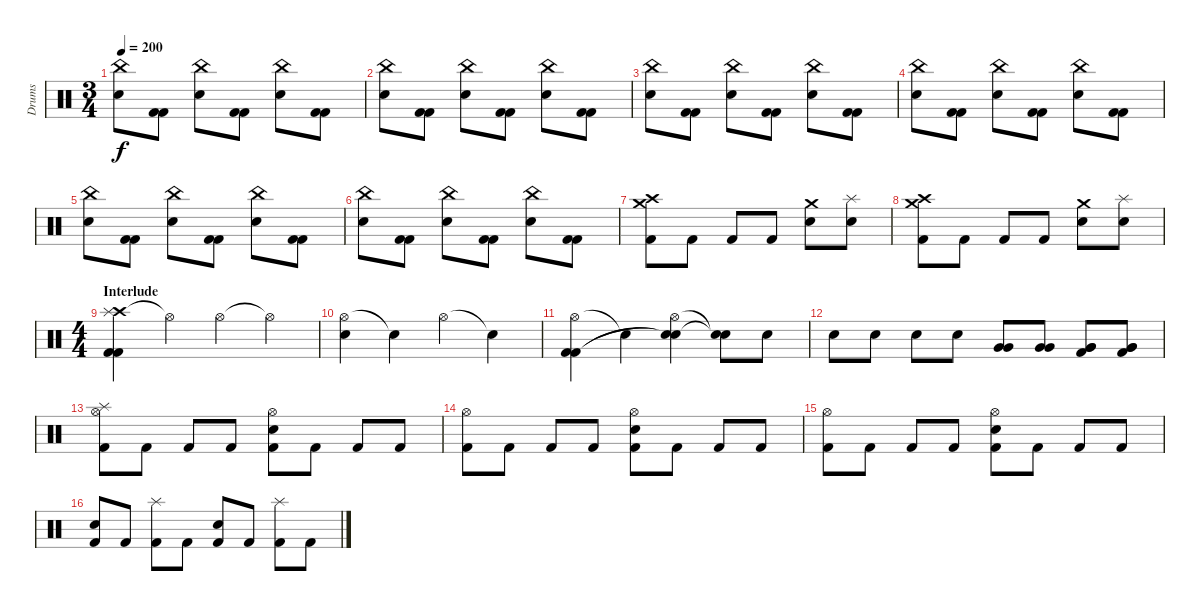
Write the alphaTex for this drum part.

\track ("Drums" "Drums") {instrument percussion}
\staff {score}
\articulation defaults
\ts (3 4)
\tempo 200
\clef neutral
\ks c
("China (hit)" "Snare (hit) 2").8{dy f} ("Kick (hit) 2" "Kick (hit) 2").8 ("China (hit)" "Snare (hit) 2").8 ("Kick (hit) 2" "Kick (hit) 2").8 ("China (hit)" "Snare (hit) 2").8 ("Kick (hit) 2" "Kick (hit) 2").8 |
("China (hit)" "Snare (hit) 2").8 ("Kick (hit) 2" "Kick (hit) 2").8 ("China (hit)" "Snare (hit) 2").8 ("Kick (hit) 2" "Kick (hit) 2").8 ("China (hit)" "Snare (hit) 2").8 ("Kick (hit) 2" "Kick (hit) 2").8 |
("China (hit)" "Snare (hit) 2").8 ("Kick (hit) 2" "Kick (hit) 2").8 ("China (hit)" "Snare (hit) 2").8 ("Kick (hit) 2" "Kick (hit) 2").8 ("China (hit)" "Snare (hit) 2").8 ("Kick (hit) 2" "Kick (hit) 2").8 |
("China (hit)" "Snare (hit) 2").8 ("Kick (hit) 2" "Kick (hit) 2").8 ("China (hit)" "Snare (hit) 2").8 ("Kick (hit) 2" "Kick (hit) 2").8 ("China (hit)" "Snare (hit) 2").8 ("Kick (hit) 2" "Kick (hit) 2").8 |
("China (hit)" "Snare (hit) 2").8 ("Kick (hit) 2" "Kick (hit) 2").8 ("China (hit)" "Snare (hit) 2").8 ("Kick (hit) 2" "Kick (hit) 2").8 ("China (hit)" "Snare (hit) 2").8 ("Kick (hit) 2" "Kick (hit) 2").8 |
("China (hit)" "Snare (hit) 2").8 ("Kick (hit) 2" "Kick (hit) 2").8 ("China (hit)" "Snare (hit) 2").8 ("Kick (hit) 2" "Kick (hit) 2").8 ("China (hit)" "Snare (hit) 2").8 ("Kick (hit) 2" "Kick (hit) 2").8 |
("Crash medium (hit)" "Crash high (hit)" "Kick (hit) 2").8 "Kick (hit) 2".8 "Kick (hit) 2".8 "Kick (hit) 2".8 ("Crash medium (hit)" "Snare (hit) 2").8 ("Splash (hit)" "Snare (hit) 2").8 |
("Crash medium (hit)" "Crash high (hit)" "Kick (hit) 2").8 "Kick (hit) 2".8 "Kick (hit) 2".8 "Kick (hit) 2".8 ("Crash medium (hit)" "Snare (hit) 2").8 ("Splash (hit)" "Snare (hit) 2").8 |
\ts (4 4)
\section ("" "Interlude")
("Crash high (hit)" "Splash (hit)" "Kick (hit) 2" "Kick (hit) 2").4 "Hi-Hat (open)"{t}.4 "Hi-Hat (open)".4 "Hi-Hat (open)"{t}.4 |
("Hi-Hat (open)" "Snare (hit) 2").4 "Snare (hit)"{t}.4 "Hi-Hat (open)".4 "Snare (hit)"{t}.4 |
("Hi-Hat (open)" "Kick (hit) 2" "Kick (hit) 2").4 "Snare (hit)"{t}.4 ("Hi-Hat (open)" "Snare (hit)"{t} "Snare (hit)"{t}).4 ("Snare (hit)"{t} "Snare (hit)"{t}).8 "Snare (hit) 2".8 |
"Snare (hit) 2".8 "Snare (hit) 2".8 "Snare (hit) 2".8 "Snare (hit) 2".8 ("Very Low Tom (hit)" "Very Low Tom (hit)").8 ("Very Low Tom (hit)" "Very Low Tom (hit)").8 ("Very Low Tom (hit)" "Very Low Tom (hit)" "Kick (hit) 2").8 ("Very Low Tom (hit)" "Very Low Tom (hit)" "Kick (hit) 2").8 |
("Hi-Hat (open)" "Splash (hit)" "Kick (hit) 2").8 "Kick (hit) 2".8 "Kick (hit) 2".8 "Kick (hit) 2".8 ("Hi-Hat (open)" "Snare (hit) 2" "Kick (hit) 2").8 "Kick (hit) 2".8 "Kick (hit) 2".8 "Kick (hit) 2".8 |
("Hi-Hat (open)" "Kick (hit) 2").8 "Kick (hit) 2".8 "Kick (hit) 2".8 "Kick (hit) 2".8 ("Hi-Hat (open)" "Snare (hit) 2" "Kick (hit) 2").8 "Kick (hit) 2".8 "Kick (hit) 2".8 "Kick (hit) 2".8 |
("Hi-Hat (open)" "Kick (hit) 2").8 "Kick (hit) 2".8 "Kick (hit) 2".8 "Kick (hit) 2".8 ("Hi-Hat (open)" "Snare (hit) 2" "Kick (hit) 2").8 "Kick (hit) 2".8 "Kick (hit) 2".8 "Kick (hit) 2".8 |
("Snare (hit) 2" "Kick (hit) 2").8 "Kick (hit) 2".8 ("Splash (hit)" "Kick (hit) 2").8 "Kick (hit) 2".8 ("Snare (hit) 2" "Kick (hit) 2").8 "Kick (hit) 2".8 ("Splash (hit)" "Kick (hit) 2").8 "Kick (hit) 2".8
